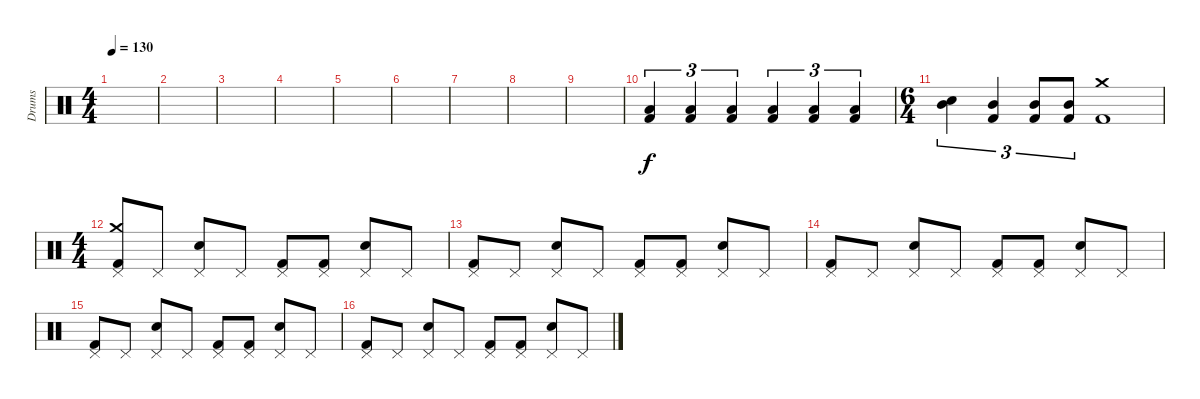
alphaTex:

\track ("Drums" "Drums") {instrument percussion}
\staff {score}
\articulation defaults
\ts (4 4)
\tempo 130
\clef neutral
\ks c
|
|
|
|
|
|
|
|
|
("Low Tom (hit)" "Kick (hit) 2").4{tu (3 2)} ("Low Tom (hit)" "Kick (hit) 2").4{tu (3 2)} ("Low Tom (hit)" "Kick (hit) 2").4{tu (3 2)} ("Low Tom (hit)" "Kick (hit) 2").4{tu (3 2)} ("Low Tom (hit)" "Kick (hit) 2").4{tu (3 2)} ("Low Tom (hit)" "Kick (hit) 2").4{tu (3 2)} |
\ts (6 4)
("Electric Snare (hit)" "Mid Tom (hit)").4{tu (3 2)} ("Mid Tom (hit)" "Kick (hit) 2").4{tu (3 2)} ("Mid Tom (hit)" "Kick (hit) 2").8{tu (3 2)} ("Mid Tom (hit)" "Kick (hit) 2").8{tu (3 2)} ("Crash medium (hit)" "Kick (hit) 2").1 |
\ts (4 4)
("Kick (hit) 2" "Crash medium (hit)" "Pedal Hi-Hat (hit)").8{dy f} "Pedal Hi-Hat (hit)".8 ("Electric Snare (hit)" "Pedal Hi-Hat (hit)").8 "Pedal Hi-Hat (hit)".8 ("Kick (hit) 2" "Pedal Hi-Hat (hit)").8 ("Kick (hit) 2" "Pedal Hi-Hat (hit)").8 ("Electric Snare (hit)" "Pedal Hi-Hat (hit)").8 "Pedal Hi-Hat (hit)".8 |
("Kick (hit) 2" "Pedal Hi-Hat (hit)").8 "Pedal Hi-Hat (hit)".8 ("Electric Snare (hit)" "Pedal Hi-Hat (hit)").8 "Pedal Hi-Hat (hit)".8 ("Kick (hit) 2" "Pedal Hi-Hat (hit)").8 ("Kick (hit) 2" "Pedal Hi-Hat (hit)").8 ("Electric Snare (hit)" "Pedal Hi-Hat (hit)").8 "Pedal Hi-Hat (hit)".8 |
("Kick (hit) 2" "Pedal Hi-Hat (hit)").8 "Pedal Hi-Hat (hit)".8 ("Electric Snare (hit)" "Pedal Hi-Hat (hit)").8 "Pedal Hi-Hat (hit)".8 ("Kick (hit) 2" "Pedal Hi-Hat (hit)").8 ("Kick (hit) 2" "Pedal Hi-Hat (hit)").8 ("Electric Snare (hit)" "Pedal Hi-Hat (hit)").8 "Pedal Hi-Hat (hit)".8 |
("Kick (hit) 2" "Pedal Hi-Hat (hit)").8 "Pedal Hi-Hat (hit)".8 ("Electric Snare (hit)" "Pedal Hi-Hat (hit)").8 "Pedal Hi-Hat (hit)".8 ("Kick (hit) 2" "Pedal Hi-Hat (hit)").8 ("Kick (hit) 2" "Pedal Hi-Hat (hit)").8 ("Electric Snare (hit)" "Pedal Hi-Hat (hit)").8 "Pedal Hi-Hat (hit)".8 |
("Kick (hit) 2" "Pedal Hi-Hat (hit)").8 "Pedal Hi-Hat (hit)".8 ("Electric Snare (hit)" "Pedal Hi-Hat (hit)").8 "Pedal Hi-Hat (hit)".8 ("Kick (hit) 2" "Pedal Hi-Hat (hit)").8 ("Kick (hit) 2" "Pedal Hi-Hat (hit)").8 ("Electric Snare (hit)" "Pedal Hi-Hat (hit)").8 "Pedal Hi-Hat (hit)".8
